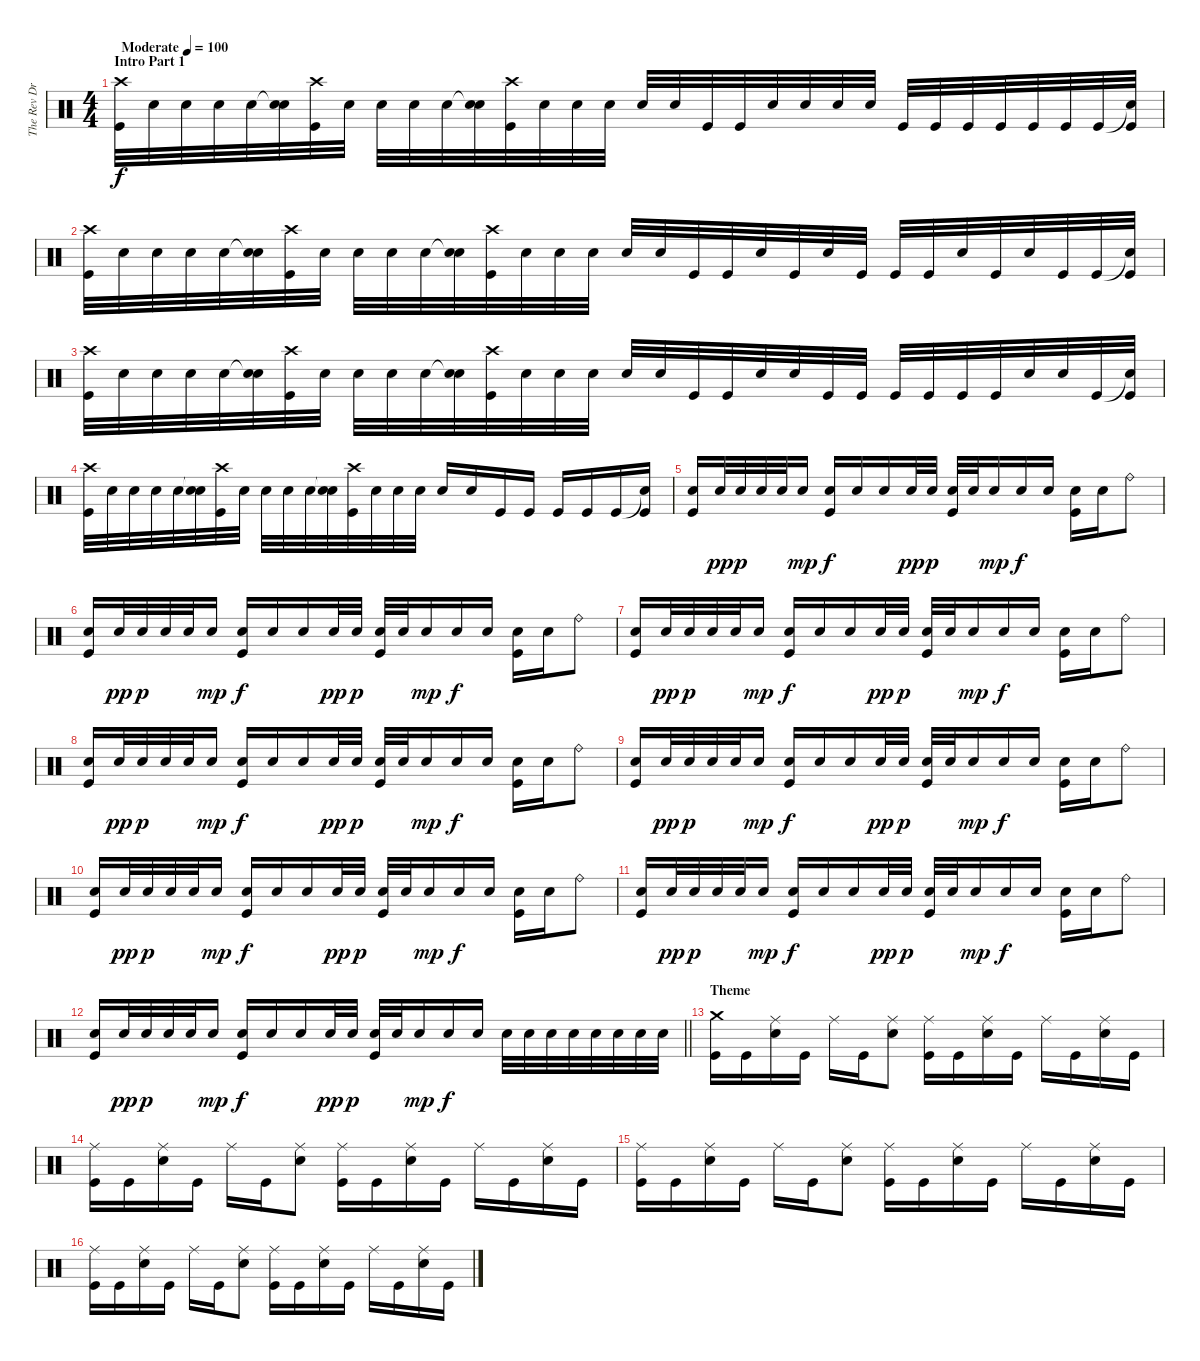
\track ("The Rev Drums" "The Rev Dr") {instrument percussion}
\staff {score}
\articulation defaults
\ts (4 4)
\section ("" "Intro Part 1")
\tempo (100 "Moderate")
\clef neutral
\ks c
("Crash high (hit)" "Kick (hit)").32{dy f} "Electric Snare (hit)".32 "Electric Snare (hit)".32 "Electric Snare (hit)".32 "Electric Snare (hit)".32 ("Snare (hit)"{t} "Electric Snare (hit)").32 ("Crash high (hit)" "Kick (hit)").32 "Electric Snare (hit)".32 "Electric Snare (hit)".32 "Electric Snare (hit)".32 "Electric Snare (hit)".32 ("Snare (hit)"{t} "Electric Snare (hit)").32 ("Crash high (hit)" "Kick (hit)").32 "Electric Snare (hit)".32 "Electric Snare (hit)".32 "Electric Snare (hit)".32 "Electric Snare (hit)".32 "Electric Snare (hit)".32 "Kick (hit)".32 "Kick (hit)".32 "Electric Snare (hit)".32 "Electric Snare (hit)".32 "Electric Snare (hit)".32 "Electric Snare (hit)".32 "Kick (hit)".32 "Kick (hit)".32 "Kick (hit)".32 "Kick (hit)".32 "Kick (hit)".32 "Kick (hit)".32 "Kick (hit)".32 ("Snare (hit)"{t} "Kick (hit)").32 |
("Crash high (hit)" "Kick (hit)").32 "Electric Snare (hit)".32 "Electric Snare (hit)".32 "Electric Snare (hit)".32 "Electric Snare (hit)".32 ("Snare (hit)"{t} "Electric Snare (hit)").32 ("Crash high (hit)" "Kick (hit)").32 "Electric Snare (hit)".32 "Electric Snare (hit)".32 "Electric Snare (hit)".32 "Electric Snare (hit)".32 ("Snare (hit)"{t} "Electric Snare (hit)").32 ("Crash high (hit)" "Kick (hit)").32 "Electric Snare (hit)".32 "Electric Snare (hit)".32 "Electric Snare (hit)".32 "Electric Snare (hit)".32 "Electric Snare (hit)".32 "Kick (hit)".32 "Kick (hit)".32 "Electric Snare (hit)".32 "Kick (hit)".32 "Electric Snare (hit)".32 "Kick (hit)".32 "Kick (hit)".32 "Kick (hit)".32 "Electric Snare (hit)".32 "Kick (hit)".32 "Electric Snare (hit)".32 "Kick (hit)".32 "Kick (hit)".32 ("Snare (hit)"{t} "Kick (hit)").32 |
("Crash high (hit)" "Kick (hit)").32 "Electric Snare (hit)".32 "Electric Snare (hit)".32 "Electric Snare (hit)".32 "Electric Snare (hit)".32 ("Snare (hit)"{t} "Electric Snare (hit)").32 ("Crash high (hit)" "Kick (hit)").32 "Electric Snare (hit)".32 "Electric Snare (hit)".32 "Electric Snare (hit)".32 "Electric Snare (hit)".32 ("Snare (hit)"{t} "Electric Snare (hit)").32 ("Crash high (hit)" "Kick (hit)").32 "Electric Snare (hit)".32 "Electric Snare (hit)".32 "Electric Snare (hit)".32 "Electric Snare (hit)".32 "Electric Snare (hit)".32 "Kick (hit)".32 "Kick (hit)".32 "Electric Snare (hit)".32 "Electric Snare (hit)".32 "Kick (hit)".32 "Kick (hit)".32 "Kick (hit)".32 "Kick (hit)".32 "Kick (hit)".32 "Kick (hit)".32 "Electric Snare (hit)".32 "Electric Snare (hit)".32 "Kick (hit)".32 ("Snare (hit)"{t} "Kick (hit)").32 |
("Crash high (hit)" "Kick (hit)").32 "Electric Snare (hit)".32 "Electric Snare (hit)".32 "Electric Snare (hit)".32 "Electric Snare (hit)".32 ("Snare (hit)"{t} "Electric Snare (hit)").32 ("Crash high (hit)" "Kick (hit)").32 "Electric Snare (hit)".32 "Electric Snare (hit)".32 "Electric Snare (hit)".32 "Electric Snare (hit)".32 ("Snare (hit)"{t} "Electric Snare (hit)").32 ("Crash high (hit)" "Kick (hit)").32 "Electric Snare (hit)".32 "Electric Snare (hit)".32 "Electric Snare (hit)".32 "Electric Snare (hit)".16 "Electric Snare (hit)".16 "Kick (hit)".16 "Kick (hit)".16 "Kick (hit)".16 "Kick (hit)".16 "Kick (hit)".16 ("Snare (hit)"{t} "Kick (hit)").16 |
("Electric Snare (hit)" "Kick (hit)").16 "Electric Snare (hit)".32{dy pp} "Electric Snare (hit)".32{dy p} "Electric Snare (hit)".32 "Electric Snare (hit)".32 "Electric Snare (hit)".16{dy mp} ("Electric Snare (hit)" "Kick (hit)").16{dy f} "Electric Snare (hit)".16 "Electric Snare (hit)".16 "Electric Snare (hit)".32{dy pp} "Electric Snare (hit)".32{dy p} ("Electric Snare (hit)" "Kick (hit)").32 "Electric Snare (hit)".32 "Electric Snare (hit)".16{dy mp} "Electric Snare (hit)".16{dy f} "Electric Snare (hit)".16 ("Electric Snare (hit)" "Kick (hit)").16 "Electric Snare (hit)".16 "Ride (bell)".8 |
("Electric Snare (hit)" "Kick (hit)").16 "Electric Snare (hit)".32{dy pp} "Electric Snare (hit)".32{dy p} "Electric Snare (hit)".32 "Electric Snare (hit)".32 "Electric Snare (hit)".16{dy mp} ("Electric Snare (hit)" "Kick (hit)").16{dy f} "Electric Snare (hit)".16 "Electric Snare (hit)".16 "Electric Snare (hit)".32{dy pp} "Electric Snare (hit)".32{dy p} ("Electric Snare (hit)" "Kick (hit)").32 "Electric Snare (hit)".32 "Electric Snare (hit)".16{dy mp} "Electric Snare (hit)".16{dy f} "Electric Snare (hit)".16 ("Electric Snare (hit)" "Kick (hit)").16 "Electric Snare (hit)".16 "Ride (bell)".8 |
("Electric Snare (hit)" "Kick (hit)").16 "Electric Snare (hit)".32{dy pp} "Electric Snare (hit)".32{dy p} "Electric Snare (hit)".32 "Electric Snare (hit)".32 "Electric Snare (hit)".16{dy mp} ("Electric Snare (hit)" "Kick (hit)").16{dy f} "Electric Snare (hit)".16 "Electric Snare (hit)".16 "Electric Snare (hit)".32{dy pp} "Electric Snare (hit)".32{dy p} ("Electric Snare (hit)" "Kick (hit)").32 "Electric Snare (hit)".32 "Electric Snare (hit)".16{dy mp} "Electric Snare (hit)".16{dy f} "Electric Snare (hit)".16 ("Electric Snare (hit)" "Kick (hit)").16 "Electric Snare (hit)".16 "Ride (bell)".8 |
("Electric Snare (hit)" "Kick (hit)").16 "Electric Snare (hit)".32{dy pp} "Electric Snare (hit)".32{dy p} "Electric Snare (hit)".32 "Electric Snare (hit)".32 "Electric Snare (hit)".16{dy mp} ("Electric Snare (hit)" "Kick (hit)").16{dy f} "Electric Snare (hit)".16 "Electric Snare (hit)".16 "Electric Snare (hit)".32{dy pp} "Electric Snare (hit)".32{dy p} ("Electric Snare (hit)" "Kick (hit)").32 "Electric Snare (hit)".32 "Electric Snare (hit)".16{dy mp} "Electric Snare (hit)".16{dy f} "Electric Snare (hit)".16 ("Electric Snare (hit)" "Kick (hit)").16 "Electric Snare (hit)".16 "Ride (bell)".8 |
("Electric Snare (hit)" "Kick (hit)").16 "Electric Snare (hit)".32{dy pp} "Electric Snare (hit)".32{dy p} "Electric Snare (hit)".32 "Electric Snare (hit)".32 "Electric Snare (hit)".16{dy mp} ("Electric Snare (hit)" "Kick (hit)").16{dy f} "Electric Snare (hit)".16 "Electric Snare (hit)".16 "Electric Snare (hit)".32{dy pp} "Electric Snare (hit)".32{dy p} ("Electric Snare (hit)" "Kick (hit)").32 "Electric Snare (hit)".32 "Electric Snare (hit)".16{dy mp} "Electric Snare (hit)".16{dy f} "Electric Snare (hit)".16 ("Electric Snare (hit)" "Kick (hit)").16 "Electric Snare (hit)".16 "Ride (bell)".8 |
("Electric Snare (hit)" "Kick (hit)").16 "Electric Snare (hit)".32{dy pp} "Electric Snare (hit)".32{dy p} "Electric Snare (hit)".32 "Electric Snare (hit)".32 "Electric Snare (hit)".16{dy mp} ("Electric Snare (hit)" "Kick (hit)").16{dy f} "Electric Snare (hit)".16 "Electric Snare (hit)".16 "Electric Snare (hit)".32{dy pp} "Electric Snare (hit)".32{dy p} ("Electric Snare (hit)" "Kick (hit)").32 "Electric Snare (hit)".32 "Electric Snare (hit)".16{dy mp} "Electric Snare (hit)".16{dy f} "Electric Snare (hit)".16 ("Electric Snare (hit)" "Kick (hit)").16 "Electric Snare (hit)".16 "Ride (bell)".8 |
("Electric Snare (hit)" "Kick (hit)").16 "Electric Snare (hit)".32{dy pp} "Electric Snare (hit)".32{dy p} "Electric Snare (hit)".32 "Electric Snare (hit)".32 "Electric Snare (hit)".16{dy mp} ("Electric Snare (hit)" "Kick (hit)").16{dy f} "Electric Snare (hit)".16 "Electric Snare (hit)".16 "Electric Snare (hit)".32{dy pp} "Electric Snare (hit)".32{dy p} ("Electric Snare (hit)" "Kick (hit)").32 "Electric Snare (hit)".32 "Electric Snare (hit)".16{dy mp} "Electric Snare (hit)".16{dy f} "Electric Snare (hit)".16 ("Electric Snare (hit)" "Kick (hit)").16 "Electric Snare (hit)".16 "Ride (bell)".8 |
\barLineRight lightlight
("Electric Snare (hit)" "Kick (hit)").16 "Electric Snare (hit)".32{dy pp} "Electric Snare (hit)".32{dy p} "Electric Snare (hit)".32 "Electric Snare (hit)".32 "Electric Snare (hit)".16{dy mp} ("Electric Snare (hit)" "Kick (hit)").16{dy f} "Electric Snare (hit)".16 "Electric Snare (hit)".16 "Electric Snare (hit)".32{dy pp} "Electric Snare (hit)".32{dy p} ("Electric Snare (hit)" "Kick (hit)").32 "Electric Snare (hit)".32 "Electric Snare (hit)".16{dy mp} "Electric Snare (hit)".16{dy f} "Electric Snare (hit)".16 "Electric Snare (hit)".32 "Electric Snare (hit)".32 "Electric Snare (hit)".32 "Electric Snare (hit)".32 "Electric Snare (hit)".32 "Electric Snare (hit)".32 "Electric Snare (hit)".32 "Electric Snare (hit)".32 |
\section ("" "Theme")
("Crash medium (hit)" "Kick (hit)").16 "Kick (hit)".16 ("Ride (middle)" "Electric Snare (hit)").16 "Kick (hit)".16 "Ride (middle)".16 "Kick (hit)".16 ("Ride (middle)" "Electric Snare (hit)").8 ("Ride (middle)" "Kick (hit)").16 "Kick (hit)".16 ("Ride (middle)" "Electric Snare (hit)").16 "Kick (hit)".16 "Ride (middle)".16 "Kick (hit)".16 ("Ride (middle)" "Electric Snare (hit)").16 "Kick (hit)".16 |
("Ride (middle)" "Kick (hit)").16 "Kick (hit)".16 ("Ride (middle)" "Electric Snare (hit)").16 "Kick (hit)".16 "Ride (middle)".16 "Kick (hit)".16 ("Ride (middle)" "Electric Snare (hit)").8 ("Ride (middle)" "Kick (hit)").16 "Kick (hit)".16 ("Ride (middle)" "Electric Snare (hit)").16 "Kick (hit)".16 "Ride (middle)".16 "Kick (hit)".16 ("Ride (middle)" "Electric Snare (hit)").16 "Kick (hit)".16 |
("Ride (middle)" "Kick (hit)").16 "Kick (hit)".16 ("Ride (middle)" "Electric Snare (hit)").16 "Kick (hit)".16 "Ride (middle)".16 "Kick (hit)".16 ("Ride (middle)" "Electric Snare (hit)").8 ("Ride (middle)" "Kick (hit)").16 "Kick (hit)".16 ("Ride (middle)" "Electric Snare (hit)").16 "Kick (hit)".16 "Ride (middle)".16 "Kick (hit)".16 ("Ride (middle)" "Electric Snare (hit)").16 "Kick (hit)".16 |
("Ride (middle)" "Kick (hit)").16 "Kick (hit)".16 ("Ride (middle)" "Electric Snare (hit)").16 "Kick (hit)".16 "Ride (middle)".16 "Kick (hit)".16 ("Ride (middle)" "Electric Snare (hit)").8 ("Ride (middle)" "Kick (hit)").16 "Kick (hit)".16 ("Ride (middle)" "Electric Snare (hit)").16 "Kick (hit)".16 "Ride (middle)".16 "Kick (hit)".16 ("Ride (middle)" "Electric Snare (hit)").16 "Kick (hit)".16
